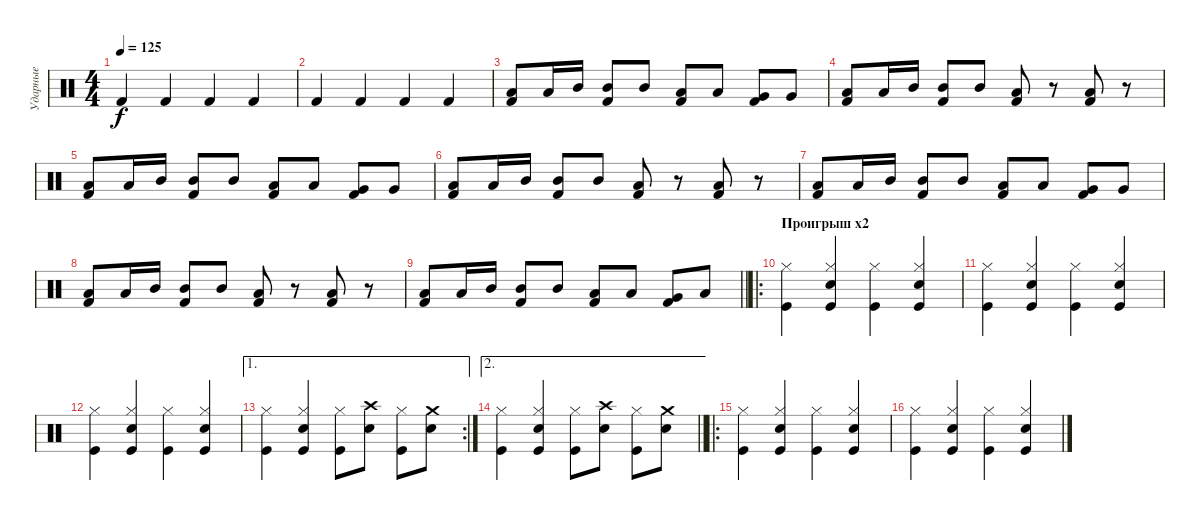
\track ("Ударные" "Ударные") {instrument percussion}
\staff {score}
\articulation defaults
\ts (4 4)
\tempo 125
\clef neutral
\ks c "Kick (hit) 2".4{dy f} "Kick (hit) 2".4 "Kick (hit) 2".4 "Kick (hit) 2".4
|
"Kick (hit) 2".4 "Kick (hit) 2".4 "Kick (hit) 2".4 "Kick (hit) 2".4 |
("Low Tom (hit)" "Kick (hit) 2").8 "Low Tom (hit)".16 "Mid Tom (hit)".16 ("Mid Tom (hit)" "Kick (hit) 2").8 "Mid Tom (hit)".8 ("Low Tom (hit)" "Kick (hit) 2").8 "Low Tom (hit)".8 ("Very Low Tom (hit)" "Kick (hit) 2").8 "Very Low Tom (hit)".8 |
("Low Tom (hit)" "Kick (hit) 2").8 "Low Tom (hit)".16 "Mid Tom (hit)".16 ("Mid Tom (hit)" "Kick (hit) 2").8 "Mid Tom (hit)".8 ("Low Tom (hit)" "Kick (hit) 2").8 r.8 ("Low Floor Tom (hit)" "Kick (hit) 2").8 r.8 |
("Low Tom (hit)" "Kick (hit) 2").8 "Low Tom (hit)".16 "Mid Tom (hit)".16 ("Mid Tom (hit)" "Kick (hit) 2").8 "Mid Tom (hit)".8 ("Low Tom (hit)" "Kick (hit) 2").8 "Low Tom (hit)".8 ("Very Low Tom (hit)" "Kick (hit) 2").8 "Very Low Tom (hit)".8 |
("Low Tom (hit)" "Kick (hit) 2").8 "Low Tom (hit)".16 "Mid Tom (hit)".16 ("Mid Tom (hit)" "Kick (hit) 2").8 "Mid Tom (hit)".8 ("Low Tom (hit)" "Kick (hit) 2").8 r.8 ("Low Floor Tom (hit)" "Kick (hit) 2").8 r.8 |
("Low Tom (hit)" "Kick (hit) 2").8 "Low Tom (hit)".16 "Mid Tom (hit)".16 ("Mid Tom (hit)" "Kick (hit) 2").8 "Mid Tom (hit)".8 ("Low Tom (hit)" "Kick (hit) 2").8 "Low Tom (hit)".8 ("Very Low Tom (hit)" "Kick (hit) 2").8 "Very Low Tom (hit)".8 |
("Low Tom (hit)" "Kick (hit) 2").8 "Low Tom (hit)".16 "Mid Tom (hit)".16 ("Mid Tom (hit)" "Kick (hit) 2").8 "Mid Tom (hit)".8 ("Low Tom (hit)" "Kick (hit) 2").8 r.8 ("Low Floor Tom (hit)" "Kick (hit) 2").8 r.8 |
\barLineRight lightlight
("Low Tom (hit)" "Kick (hit) 2").8 "Low Tom (hit)".16 "Mid Tom (hit)".16 ("Mid Tom (hit)" "Kick (hit) 2").8 "Mid Tom (hit)".8 ("Low Tom (hit)" "Kick (hit) 2").8 "Low Tom (hit)".8 ("Very Low Tom (hit)" "Kick (hit) 2").8 "Low Floor Tom (hit)".8 |
\ro
\section ("" "Проигрыш x2")
("Kick (hit)" "Hi-Hat (closed)").4 ("Kick (hit)" "Snare (hit) 2" "Hi-Hat (closed)").4 ("Kick (hit)" "Hi-Hat (closed)").4 ("Kick (hit)" "Snare (hit) 2" "Hi-Hat (closed)").4 |
("Kick (hit)" "Hi-Hat (closed)").4 ("Kick (hit)" "Snare (hit) 2" "Hi-Hat (closed)").4 ("Kick (hit)" "Hi-Hat (closed)").4 ("Kick (hit)" "Snare (hit) 2" "Hi-Hat (closed)").4 |
("Kick (hit)" "Hi-Hat (closed)").4 ("Kick (hit)" "Snare (hit) 2" "Hi-Hat (closed)").4 ("Kick (hit)" "Hi-Hat (closed)").4 ("Kick (hit)" "Snare (hit) 2" "Hi-Hat (closed)").4 |
\ae 1
\rc 2
("Kick (hit)" "Hi-Hat (closed)").4 ("Kick (hit)" "Snare (hit) 2" "Hi-Hat (closed)").4 ("Kick (hit)" "Hi-Hat (closed)").8 ("Snare (hit) 2" "Crash high (hit)").8 ("Kick (hit)" "Hi-Hat (closed)").8 ("Snare (hit) 2" "Crash medium (hit)").8 |
\ae 2
\barLineRight lightlight
("Kick (hit)" "Hi-Hat (closed)").4 ("Kick (hit)" "Snare (hit) 2" "Hi-Hat (closed)").4 ("Kick (hit)" "Hi-Hat (closed)").8 ("Snare (hit) 2" "Crash high (hit)").8 ("Kick (hit)" "Hi-Hat (closed)").8 ("Snare (hit) 2" "Crash medium (hit)").8 |
\ro
("Kick (hit)" "Hi-Hat (closed)").4 ("Kick (hit)" "Snare (hit) 2" "Hi-Hat (closed)").4 ("Kick (hit)" "Hi-Hat (closed)").4 ("Kick (hit)" "Snare (hit) 2" "Hi-Hat (closed)").4 |
("Kick (hit)" "Hi-Hat (closed)").4 ("Kick (hit)" "Snare (hit) 2" "Hi-Hat (closed)").4 ("Kick (hit)" "Hi-Hat (closed)").4 ("Kick (hit)" "Snare (hit) 2" "Hi-Hat (closed)").4
